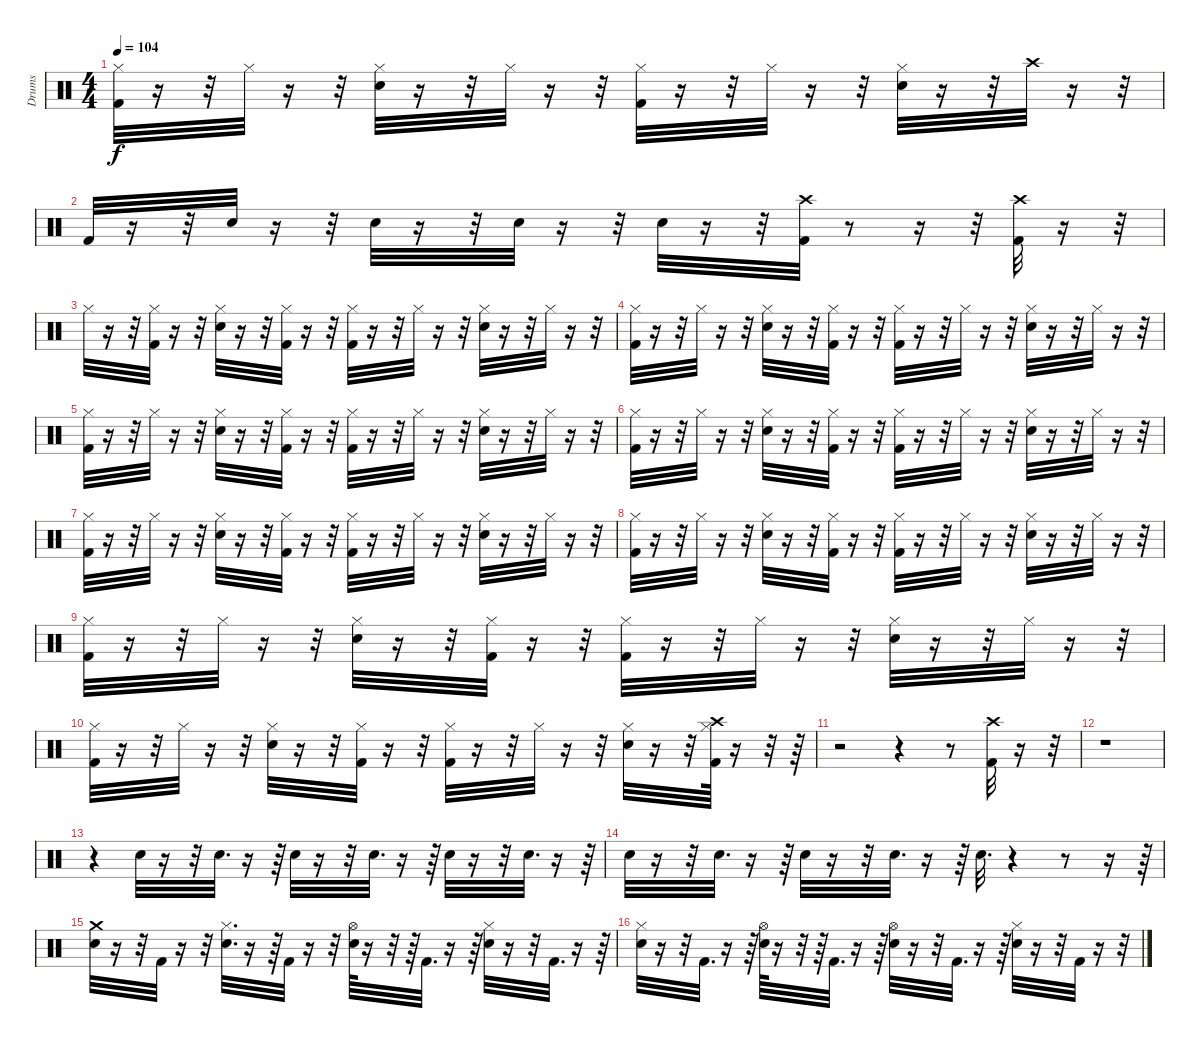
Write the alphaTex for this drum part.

\track ("Drums" "Drums") {instrument percussion}
\staff {score}
\articulation defaults
\ts (4 4)
\tempo 104
\clef neutral
\ks c
("Hi-Hat (closed)" "Kick (hit) 2").32{dy f} r.16 r.32 "Hi-Hat (closed)".32 r.16 r.32 ("Hi-Hat (closed)" "Snare (hit) 2").32 r.16 r.32 "Hi-Hat (closed)".32 r.16 r.32 ("Hi-Hat (closed)" "Kick (hit) 2").32 r.16 r.32 "Hi-Hat (closed)".32 r.16 r.32 ("Hi-Hat (closed)" "Snare (hit) 2").32 r.16 r.32 "Crash high (hit)".32 r.16 r.32 |
"Kick (hit) 2".32 r.16 r.32 "Snare (hit) 2".32 r.16 r.32 "Snare (hit) 2".32 r.16 r.32 "Snare (hit) 2".32 r.16 r.32 "Snare (hit) 2".32 r.16 r.32 ("Crash high (hit)" "Kick (hit) 2").32 r.8 r.16 r.32 ("Crash high (hit)" "Kick (hit) 2").32 r.16 r.32 |
"Hi-Hat (closed)".32 r.16 r.32 ("Hi-Hat (closed)" "Kick (hit) 2").32 r.16 r.32 ("Hi-Hat (closed)" "Snare (hit) 2").32 r.16 r.32 ("Hi-Hat (closed)" "Kick (hit) 2").32 r.16 r.32 ("Hi-Hat (closed)" "Kick (hit) 2").32 r.16 r.32 "Hi-Hat (closed)".32 r.16 r.32 ("Hi-Hat (closed)" "Snare (hit) 2").32 r.16 r.32 "Hi-Hat (closed)".32 r.16 r.32 |
("Hi-Hat (closed)" "Kick (hit) 2").32 r.16 r.32 "Hi-Hat (closed)".32 r.16 r.32 ("Hi-Hat (closed)" "Snare (hit) 2").32 r.16 r.32 ("Hi-Hat (closed)" "Kick (hit) 2").32 r.16 r.32 ("Hi-Hat (closed)" "Kick (hit) 2").32 r.16 r.32 "Hi-Hat (closed)".32 r.16 r.32 ("Hi-Hat (closed)" "Snare (hit) 2").32 r.16 r.32 "Hi-Hat (closed)".32 r.16 r.32 |
("Hi-Hat (closed)" "Kick (hit) 2").32 r.16 r.32 "Hi-Hat (closed)".32 r.16 r.32 ("Hi-Hat (closed)" "Snare (hit) 2").32 r.16 r.32 ("Hi-Hat (closed)" "Kick (hit) 2").32 r.16 r.32 ("Hi-Hat (closed)" "Kick (hit) 2").32 r.16 r.32 "Hi-Hat (closed)".32 r.16 r.32 ("Hi-Hat (closed)" "Snare (hit) 2").32 r.16 r.32 "Hi-Hat (closed)".32 r.16 r.32 |
("Hi-Hat (closed)" "Kick (hit) 2").32 r.16 r.32 "Hi-Hat (closed)".32 r.16 r.32 ("Hi-Hat (closed)" "Snare (hit) 2").32 r.16 r.32 ("Hi-Hat (closed)" "Kick (hit) 2").32 r.16 r.32 ("Hi-Hat (closed)" "Kick (hit) 2").32 r.16 r.32 "Hi-Hat (closed)".32 r.16 r.32 ("Hi-Hat (closed)" "Snare (hit) 2").32 r.16 r.32 "Hi-Hat (closed)".32 r.16 r.32 |
("Hi-Hat (closed)" "Kick (hit) 2").32 r.16 r.32 "Hi-Hat (closed)".32 r.16 r.32 ("Hi-Hat (closed)" "Snare (hit) 2").32 r.16 r.32 ("Hi-Hat (closed)" "Kick (hit) 2").32 r.16 r.32 ("Hi-Hat (closed)" "Kick (hit) 2").32 r.16 r.32 "Hi-Hat (closed)".32 r.16 r.32 ("Hi-Hat (closed)" "Snare (hit) 2").32 r.16 r.32 "Hi-Hat (closed)".32 r.16 r.32 |
("Hi-Hat (closed)" "Kick (hit) 2").32 r.16 r.32 "Hi-Hat (closed)".32 r.16 r.32 ("Hi-Hat (closed)" "Snare (hit) 2").32 r.16 r.32 ("Hi-Hat (closed)" "Kick (hit) 2").32 r.16 r.32 ("Hi-Hat (closed)" "Kick (hit) 2").32 r.16 r.32 "Hi-Hat (closed)".32 r.16 r.32 ("Hi-Hat (closed)" "Snare (hit) 2").32 r.16 r.32 "Hi-Hat (closed)".32 r.16 r.32 |
("Hi-Hat (closed)" "Kick (hit) 2").32 r.16 r.32 "Hi-Hat (closed)".32 r.16 r.32 ("Hi-Hat (closed)" "Snare (hit) 2").32 r.16 r.32 ("Hi-Hat (closed)" "Kick (hit) 2").32 r.16 r.32 ("Hi-Hat (closed)" "Kick (hit) 2").32 r.16 r.32 "Hi-Hat (closed)".32 r.16 r.32 ("Hi-Hat (closed)" "Snare (hit) 2").32 r.16 r.32 "Hi-Hat (closed)".32 r.16 r.32 |
("Hi-Hat (closed)" "Kick (hit) 2").32 r.16 r.32 "Hi-Hat (closed)".32 r.16 r.32 ("Hi-Hat (closed)" "Snare (hit) 2").32 r.16 r.32 ("Hi-Hat (closed)" "Kick (hit) 2").32 r.16 r.32 ("Hi-Hat (closed)" "Kick (hit) 2").32 r.16 r.32 "Hi-Hat (closed)".32 r.16 r.32 ("Hi-Hat (closed)" "Snare (hit) 2").32 r.16 r.32 ("Crash high (hit)" "Hi-Hat (closed)" "Kick (hit) 2").64 r.16 r.32 r.64 |
r.2 r.4 r.8 ("Kick (hit) 2" "Crash high (hit)").32 r.16 r.32 |
r.1 |
r.4 "Snare (hit) 2".32 r.16 r.32 "Snare (hit) 2".32{d} r.16 r.64 "Snare (hit) 2".32 r.16 r.32 "Snare (hit) 2".32{d} r.16 r.64 "Snare (hit) 2".32 r.16 r.32 "Snare (hit) 2".32{d} r.16 r.64 |
"Snare (hit) 2".32 r.16 r.32 "Snare (hit) 2".32{d} r.16 r.64 "Snare (hit) 2".32 r.16 r.32 "Snare (hit) 2".32{d} r.16 r.64 "Snare (hit) 2".32{d} r.4 r.8 r.16 r.64 |
("Crash medium (hit)" "Snare (hit) 2").32 r.16 r.32 "Kick (hit) 2".32 r.16 r.32 ("Hi-Hat (closed)" "Snare (hit) 2").32{d} r.16 r.64 "Kick (hit) 2".32 r.16 r.32 ("Hi-Hat (open)" "Snare (hit) 2").64 r.16 r.32 r.64 "Kick (hit) 2".32{d} r.16 r.64 ("Hi-Hat (closed)" "Snare (hit) 2").32 r.16 r.32 "Kick (hit) 2".32{d} r.16 r.64 |
("Hi-Hat (closed)" "Snare (hit) 2").32 r.16 r.32 "Kick (hit) 2".32{d} r.16 r.64 ("Hi-Hat (open)" "Snare (hit) 2").64 r.16 r.32 r.64 "Kick (hit) 2".32{d} r.16 r.64 ("Hi-Hat (open)" "Snare (hit) 2").32 r.16 r.32 "Kick (hit) 2".32{d} r.16 r.64 ("Hi-Hat (closed)" "Snare (hit) 2").32 r.16 r.32 "Kick (hit) 2".32 r.16 r.32
